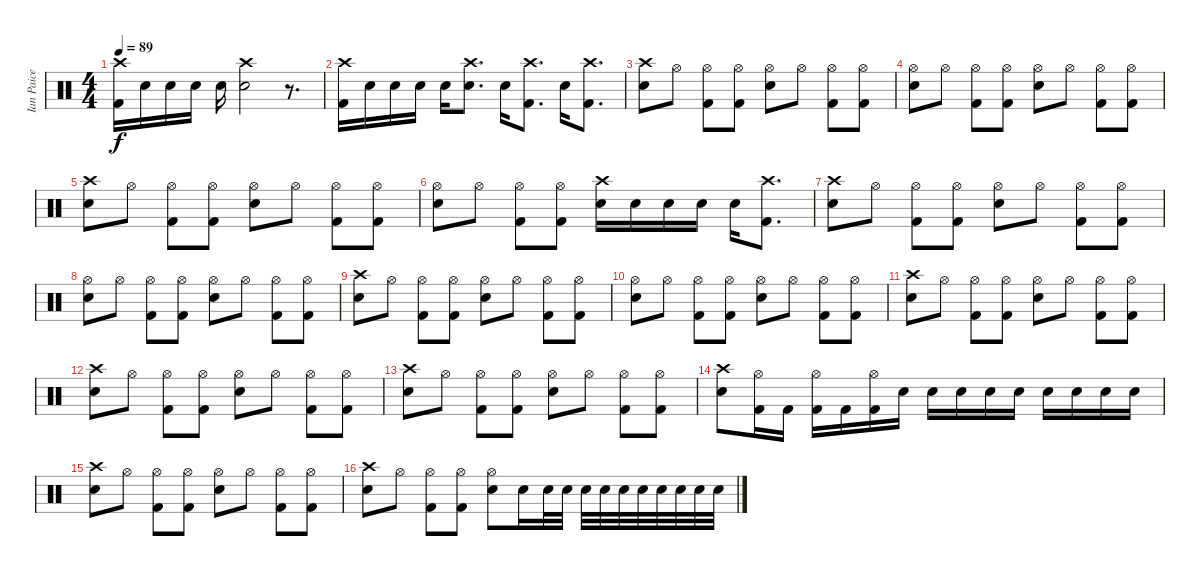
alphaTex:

\track ("Ian Paice" "Ian Paice") {instrument percussion}
\staff {score}
\articulation defaults
\ts (4 4)
\tempo 89
\clef neutral
\ks c
("Crash high (hit)" "Kick (hit) 2").16{dy f} "Electric Snare (hit)".16 "Electric Snare (hit)".16 "Electric Snare (hit)".16 "Electric Snare (hit)".16 ("Crash high (hit)" "Electric Snare (hit)").2 r.8{d} |
("Crash high (hit)" "Kick (hit) 2").16 "Electric Snare (hit)".16 "Electric Snare (hit)".16 "Electric Snare (hit)".16 "Electric Snare (hit)".16 ("Crash high (hit)" "Electric Snare (hit)").8{d} "Electric Snare (hit)".16 ("Crash high (hit)" "Kick (hit) 2").8{d} "Electric Snare (hit)".16 ("Crash high (hit)" "Kick (hit) 2").8{d} |
("Crash high (hit)" "Electric Snare (hit)").8 "Hi-Hat (open)".8 ("Hi-Hat (open)" "Kick (hit) 2").8 ("Hi-Hat (open)" "Kick (hit) 2").8 ("Hi-Hat (open)" "Electric Snare (hit)").8 "Hi-Hat (open)".8 ("Hi-Hat (open)" "Kick (hit) 2").8 ("Hi-Hat (open)" "Kick (hit) 2").8 |
("Hi-Hat (open)" "Electric Snare (hit)").8 "Hi-Hat (open)".8 ("Hi-Hat (open)" "Kick (hit) 2").8 ("Hi-Hat (open)" "Kick (hit) 2").8 ("Hi-Hat (open)" "Electric Snare (hit)").8 "Hi-Hat (open)".8 ("Hi-Hat (open)" "Kick (hit) 2").8 ("Hi-Hat (open)" "Kick (hit) 2").8 |
("Crash high (hit)" "Electric Snare (hit)").8 "Hi-Hat (open)".8 ("Hi-Hat (open)" "Kick (hit) 2").8 ("Hi-Hat (open)" "Kick (hit) 2").8 ("Hi-Hat (open)" "Electric Snare (hit)").8 "Hi-Hat (open)".8 ("Hi-Hat (open)" "Kick (hit) 2").8 ("Hi-Hat (open)" "Kick (hit) 2").8 |
("Hi-Hat (open)" "Electric Snare (hit)").8 "Hi-Hat (open)".8 ("Hi-Hat (open)" "Kick (hit) 2").8 ("Hi-Hat (open)" "Kick (hit) 2").8 ("Crash high (hit)" "Electric Snare (hit)").16 "Electric Snare (hit)".16 "Electric Snare (hit)".16 "Electric Snare (hit)".16 "Electric Snare (hit)".16 ("Crash high (hit)" "Kick (hit) 2").8{d} |
("Crash high (hit)" "Electric Snare (hit)").8 "Hi-Hat (open)".8 ("Hi-Hat (open)" "Kick (hit) 2").8 ("Hi-Hat (open)" "Kick (hit) 2").8 ("Hi-Hat (open)" "Electric Snare (hit)").8 "Hi-Hat (open)".8 ("Hi-Hat (open)" "Kick (hit) 2").8 ("Hi-Hat (open)" "Kick (hit) 2").8 |
("Hi-Hat (open)" "Electric Snare (hit)").8 "Hi-Hat (open)".8 ("Hi-Hat (open)" "Kick (hit) 2").8 ("Hi-Hat (open)" "Kick (hit) 2").8 ("Hi-Hat (open)" "Electric Snare (hit)").8 "Hi-Hat (open)".8 ("Hi-Hat (open)" "Kick (hit) 2").8 ("Hi-Hat (open)" "Kick (hit) 2").8 |
("Crash high (hit)" "Electric Snare (hit)").8 "Hi-Hat (open)".8 ("Hi-Hat (open)" "Kick (hit) 2").8 ("Hi-Hat (open)" "Kick (hit) 2").8 ("Hi-Hat (open)" "Electric Snare (hit)").8 "Hi-Hat (open)".8 ("Hi-Hat (open)" "Kick (hit) 2").8 ("Hi-Hat (open)" "Kick (hit) 2").8 |
("Hi-Hat (open)" "Electric Snare (hit)").8 "Hi-Hat (open)".8 ("Hi-Hat (open)" "Kick (hit) 2").8 ("Hi-Hat (open)" "Kick (hit) 2").8 ("Hi-Hat (open)" "Electric Snare (hit)").8 "Hi-Hat (open)".8 ("Hi-Hat (open)" "Kick (hit) 2").8 ("Hi-Hat (open)" "Kick (hit) 2").8 |
("Crash high (hit)" "Electric Snare (hit)").8 "Hi-Hat (open)".8 ("Hi-Hat (open)" "Kick (hit) 2").8 ("Hi-Hat (open)" "Kick (hit) 2").8 ("Hi-Hat (open)" "Electric Snare (hit)").8 "Hi-Hat (open)".8 ("Hi-Hat (open)" "Kick (hit) 2").8 ("Hi-Hat (open)" "Kick (hit) 2").8 |
("Crash high (hit)" "Electric Snare (hit)").8 "Hi-Hat (open)".8 ("Hi-Hat (open)" "Kick (hit) 2").8 ("Hi-Hat (open)" "Kick (hit) 2").8 ("Hi-Hat (open)" "Electric Snare (hit)").8 "Hi-Hat (open)".8 ("Hi-Hat (open)" "Kick (hit) 2").8 ("Hi-Hat (open)" "Kick (hit) 2").8 |
("Crash high (hit)" "Electric Snare (hit)").8 "Hi-Hat (open)".8 ("Hi-Hat (open)" "Kick (hit) 2").8 ("Hi-Hat (open)" "Kick (hit) 2").8 ("Hi-Hat (open)" "Electric Snare (hit)").8 "Hi-Hat (open)".8 ("Hi-Hat (open)" "Kick (hit) 2").8 ("Hi-Hat (open)" "Kick (hit) 2").8 |
("Crash high (hit)" "Electric Snare (hit)").8 ("Hi-Hat (open)" "Kick (hit) 2").16 "Kick (hit) 2".16 ("Hi-Hat (open)" "Kick (hit) 2").16 "Kick (hit) 2".16 ("Hi-Hat (open)" "Kick (hit) 2").16 "Electric Snare (hit)".16 "Electric Snare (hit)".16 "Electric Snare (hit)".16 "Electric Snare (hit)".16 "Electric Snare (hit)".16 "Electric Snare (hit)".16 "Electric Snare (hit)".16 "Electric Snare (hit)".16 "Electric Snare (hit)".16 |
("Crash high (hit)" "Electric Snare (hit)").8 "Hi-Hat (open)".8 ("Hi-Hat (open)" "Kick (hit) 2").8 ("Hi-Hat (open)" "Kick (hit) 2").8 ("Hi-Hat (open)" "Electric Snare (hit)").8 "Hi-Hat (open)".8 ("Hi-Hat (open)" "Kick (hit) 2").8 ("Hi-Hat (open)" "Kick (hit) 2").8 |
("Crash high (hit)" "Electric Snare (hit)").8 "Hi-Hat (open)".8 ("Hi-Hat (open)" "Kick (hit) 2").8 ("Hi-Hat (open)" "Kick (hit) 2").8 ("Hi-Hat (open)" "Electric Snare (hit)").8 "Electric Snare (hit)".16 "Electric Snare (hit)".32 "Electric Snare (hit)".32 "Electric Snare (hit)".32 "Electric Snare (hit)".32 "Electric Snare (hit)".32 "Electric Snare (hit)".32 "Electric Snare (hit)".32 "Electric Snare (hit)".32 "Electric Snare (hit)".32 "Electric Snare (hit)".32
